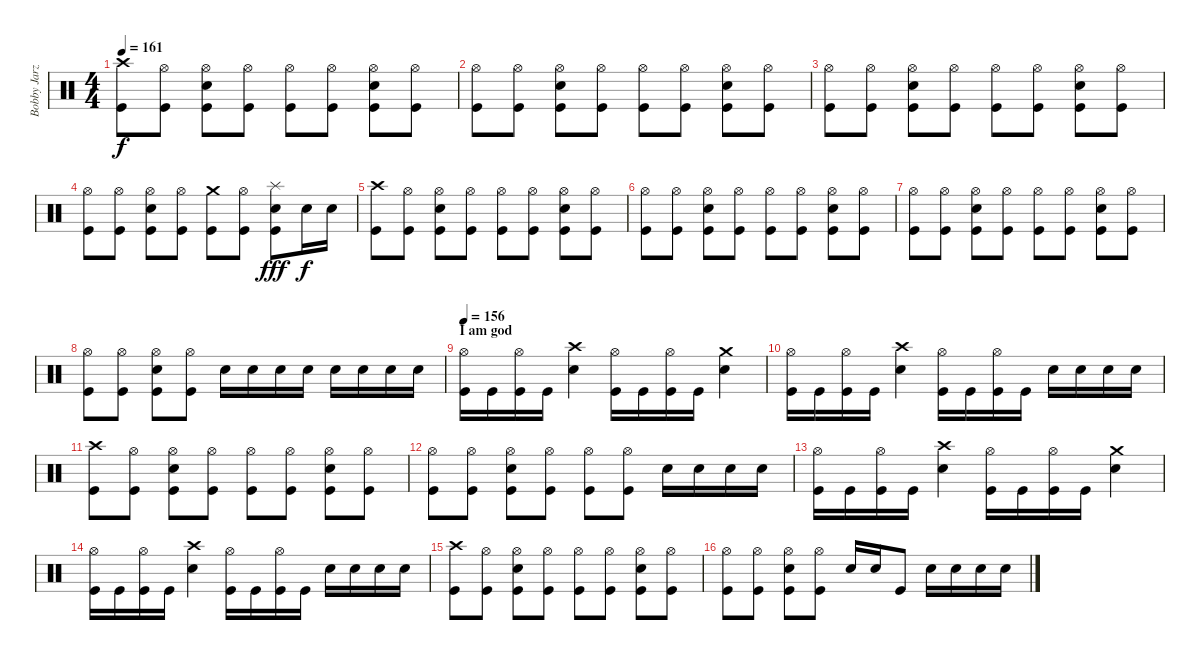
\track ("Bobby Jarzombek" "Bobby Jarz") {instrument percussion}
\staff {score}
\articulation defaults
\ts (4 4)
\tempo 161
\clef neutral
\ks c
("Crash high (hit)" "Kick (hit)").8{dy f} ("Hi-Hat (open)" "Kick (hit)").8 ("Hi-Hat (open)" "Electric Snare (hit)" "Kick (hit)").8 ("Hi-Hat (open)" "Kick (hit)").8 ("Hi-Hat (open)" "Kick (hit)").8 ("Hi-Hat (open)" "Kick (hit)").8 ("Hi-Hat (open)" "Electric Snare (hit)" "Kick (hit)").8 ("Hi-Hat (open)" "Kick (hit)").8 |
("Hi-Hat (open)" "Kick (hit)").8 ("Hi-Hat (open)" "Kick (hit)").8 ("Hi-Hat (open)" "Electric Snare (hit)" "Kick (hit)").8 ("Hi-Hat (open)" "Kick (hit)").8 ("Hi-Hat (open)" "Kick (hit)").8 ("Hi-Hat (open)" "Kick (hit)").8 ("Hi-Hat (open)" "Electric Snare (hit)" "Kick (hit)").8 ("Hi-Hat (open)" "Kick (hit)").8 |
("Hi-Hat (open)" "Kick (hit)").8 ("Hi-Hat (open)" "Kick (hit)").8 ("Hi-Hat (open)" "Electric Snare (hit)" "Kick (hit)").8 ("Hi-Hat (open)" "Kick (hit)").8 ("Hi-Hat (open)" "Kick (hit)").8 ("Hi-Hat (open)" "Kick (hit)").8 ("Hi-Hat (open)" "Electric Snare (hit)" "Kick (hit)").8 ("Hi-Hat (open)" "Kick (hit)").8 |
("Hi-Hat (open)" "Kick (hit)").8 ("Hi-Hat (open)" "Kick (hit)").8 ("Hi-Hat (open)" "Electric Snare (hit)" "Kick (hit)").8 ("Hi-Hat (open)" "Kick (hit)").8 ("Crash medium (hit)" "Kick (hit)").8 ("Hi-Hat (open)" "Kick (hit)").8 ("Splash (hit)" "Electric Snare (hit)" "Kick (hit)").8{dy fff} "Electric Snare (hit)".16{dy f} "Electric Snare (hit)".16 |
("Crash high (hit)" "Kick (hit)").8 ("Hi-Hat (open)" "Kick (hit)").8 ("Hi-Hat (open)" "Electric Snare (hit)" "Kick (hit)").8 ("Hi-Hat (open)" "Kick (hit)").8 ("Hi-Hat (open)" "Kick (hit)").8 ("Hi-Hat (open)" "Kick (hit)").8 ("Hi-Hat (open)" "Electric Snare (hit)" "Kick (hit)").8 ("Hi-Hat (open)" "Kick (hit)").8 |
("Hi-Hat (open)" "Kick (hit)").8 ("Hi-Hat (open)" "Kick (hit)").8 ("Hi-Hat (open)" "Electric Snare (hit)" "Kick (hit)").8 ("Hi-Hat (open)" "Kick (hit)").8 ("Hi-Hat (open)" "Kick (hit)").8 ("Hi-Hat (open)" "Kick (hit)").8 ("Hi-Hat (open)" "Electric Snare (hit)" "Kick (hit)").8 ("Hi-Hat (open)" "Kick (hit)").8 |
("Hi-Hat (open)" "Kick (hit)").8 ("Hi-Hat (open)" "Kick (hit)").8 ("Hi-Hat (open)" "Electric Snare (hit)" "Kick (hit)").8 ("Hi-Hat (open)" "Kick (hit)").8 ("Hi-Hat (open)" "Kick (hit)").8 ("Hi-Hat (open)" "Kick (hit)").8 ("Hi-Hat (open)" "Electric Snare (hit)" "Kick (hit)").8 ("Hi-Hat (open)" "Kick (hit)").8 |
("Hi-Hat (open)" "Kick (hit)").8 ("Hi-Hat (open)" "Kick (hit)").8 ("Hi-Hat (open)" "Electric Snare (hit)" "Kick (hit)").8 ("Hi-Hat (open)" "Kick (hit)").8 "Electric Snare (hit)".16 "Electric Snare (hit)".16 "Electric Snare (hit)".16 "Electric Snare (hit)".16 "Electric Snare (hit)".16 "Electric Snare (hit)".16 "Electric Snare (hit)".16 "Electric Snare (hit)".16 |
\section ("" "I am god")
\tempo 156
("Hi-Hat (open)" "Kick (hit)").16 "Kick (hit)".16 ("Hi-Hat (open)" "Kick (hit)").16 "Kick (hit)".16 ("Crash high (hit)" "Electric Snare (hit)").4 ("Hi-Hat (open)" "Kick (hit)").16 "Kick (hit)".16 ("Hi-Hat (open)" "Kick (hit)").16 "Kick (hit)".16 ("Crash medium (hit)" "Electric Snare (hit)").4 |
("Hi-Hat (open)" "Kick (hit)").16 "Kick (hit)".16 ("Hi-Hat (open)" "Kick (hit)").16 "Kick (hit)".16 ("Crash high (hit)" "Electric Snare (hit)").4 ("Hi-Hat (open)" "Kick (hit)").16 "Kick (hit)".16 ("Hi-Hat (open)" "Kick (hit)").16 "Kick (hit)".16 "Electric Snare (hit)".16 "Electric Snare (hit)".16 "Electric Snare (hit)".16 "Electric Snare (hit)".16 |
("Crash high (hit)" "Kick (hit)").8 ("Hi-Hat (open)" "Kick (hit)").8 ("Hi-Hat (open)" "Electric Snare (hit)" "Kick (hit)").8 ("Hi-Hat (open)" "Kick (hit)").8 ("Hi-Hat (open)" "Kick (hit)").8 ("Hi-Hat (open)" "Kick (hit)").8 ("Hi-Hat (open)" "Electric Snare (hit)" "Kick (hit)").8 ("Hi-Hat (open)" "Kick (hit)").8 |
("Hi-Hat (open)" "Kick (hit)").8 ("Hi-Hat (open)" "Kick (hit)").8 ("Hi-Hat (open)" "Electric Snare (hit)" "Kick (hit)").8 ("Hi-Hat (open)" "Kick (hit)").8 ("Hi-Hat (open)" "Kick (hit)").8 ("Hi-Hat (open)" "Kick (hit)").8 "Electric Snare (hit)".16 "Electric Snare (hit)".16 "Electric Snare (hit)".16 "Electric Snare (hit)".16 |
("Hi-Hat (open)" "Kick (hit)").16 "Kick (hit)".16 ("Hi-Hat (open)" "Kick (hit)").16 "Kick (hit)".16 ("Crash high (hit)" "Electric Snare (hit)").4 ("Hi-Hat (open)" "Kick (hit)").16 "Kick (hit)".16 ("Hi-Hat (open)" "Kick (hit)").16 "Kick (hit)".16 ("Crash medium (hit)" "Electric Snare (hit)").4 |
("Hi-Hat (open)" "Kick (hit)").16 "Kick (hit)".16 ("Hi-Hat (open)" "Kick (hit)").16 "Kick (hit)".16 ("Crash high (hit)" "Electric Snare (hit)").4 ("Hi-Hat (open)" "Kick (hit)").16 "Kick (hit)".16 ("Hi-Hat (open)" "Kick (hit)").16 "Kick (hit)".16 "Electric Snare (hit)".16 "Electric Snare (hit)".16 "Electric Snare (hit)".16 "Electric Snare (hit)".16 |
("Crash high (hit)" "Kick (hit)").8 ("Hi-Hat (open)" "Kick (hit)").8 ("Hi-Hat (open)" "Electric Snare (hit)" "Kick (hit)").8 ("Hi-Hat (open)" "Kick (hit)").8 ("Hi-Hat (open)" "Kick (hit)").8 ("Hi-Hat (open)" "Kick (hit)").8 ("Hi-Hat (open)" "Electric Snare (hit)" "Kick (hit)").8 ("Hi-Hat (open)" "Kick (hit)").8 |
("Hi-Hat (open)" "Kick (hit)").8 ("Hi-Hat (open)" "Kick (hit)").8 ("Hi-Hat (open)" "Electric Snare (hit)" "Kick (hit)").8 ("Hi-Hat (open)" "Kick (hit)").8 "Electric Snare (hit)".16 "Electric Snare (hit)".16 "Kick (hit)".8 "Electric Snare (hit)".16 "Electric Snare (hit)".16 "Electric Snare (hit)".16 "Electric Snare (hit)".16
